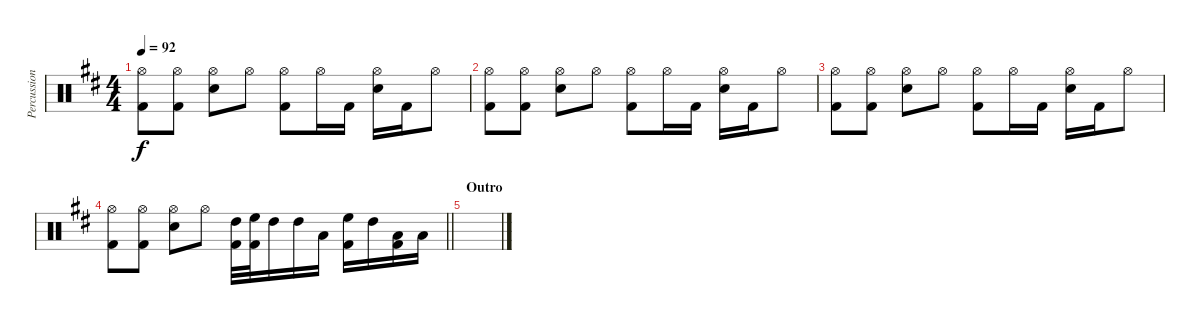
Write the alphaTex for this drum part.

\track ("Percussion" "Percussion") {instrument percussion}
\staff {score}
\articulation defaults
\ts (4 4)
\tempo 92
\clef neutral
\ks d
("Hi-Hat (open)" "Kick (hit) 2").8{dy f} ("Hi-Hat (open)" "Kick (hit) 2").8 ("Hi-Hat (open)" "Snare (hit) 2").8 "Hi-Hat (open)".8 ("Hi-Hat (open)" "Kick (hit) 2").8 "Hi-Hat (open)".16 "Kick (hit) 2".16 ("Hi-Hat (open)" "Snare (hit) 2").16 "Kick (hit) 2".16 "Hi-Hat (open)".8 |
("Hi-Hat (open)" "Kick (hit) 2").8 ("Hi-Hat (open)" "Kick (hit) 2").8 ("Hi-Hat (open)" "Snare (hit) 2").8 "Hi-Hat (open)".8 ("Hi-Hat (open)" "Kick (hit) 2").8 "Hi-Hat (open)".16 "Kick (hit) 2".16 ("Hi-Hat (open)" "Snare (hit) 2").16 "Kick (hit) 2".16 "Hi-Hat (open)".8 |
("Hi-Hat (open)" "Kick (hit) 2").8 ("Hi-Hat (open)" "Kick (hit) 2").8 ("Hi-Hat (open)" "Snare (hit) 2").8 "Hi-Hat (open)".8 ("Hi-Hat (open)" "Kick (hit) 2").8 "Hi-Hat (open)".16 "Kick (hit) 2".16 ("Hi-Hat (open)" "Snare (hit) 2").16 "Kick (hit) 2".16 "Hi-Hat (open)".8 |
\barLineRight lightlight
("Hi-Hat (open)" "Kick (hit) 2").8 ("Hi-Hat (open)" "Kick (hit) 2").8 ("Hi-Hat (open)" "Snare (hit) 2").8 "Hi-Hat (open)".8 ("High Tom (hit)" "Kick (hit) 2").32 ("High Floor Tom (hit)" "Kick (hit) 2").32 "High Tom (hit)".16 "High Tom (hit)".16 "Low Tom (hit)".16 ("High Floor Tom (hit)" "Kick (hit) 2").16 "High Tom (hit)".16 ("Low Tom (hit)" "Kick (hit) 2").16 "Low Floor Tom (hit)".16 |
\section ("" "Outro")
